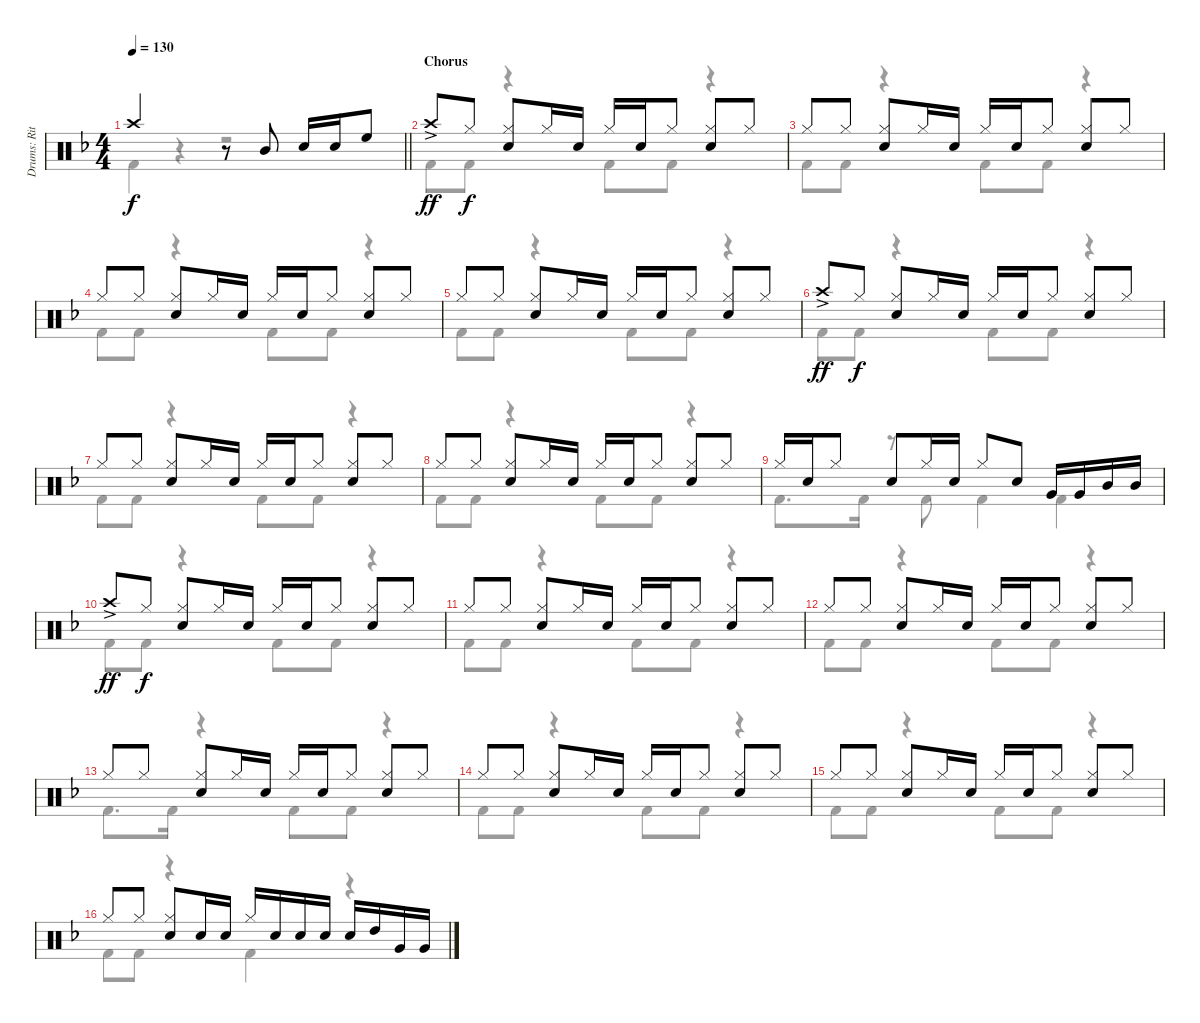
\track ("Drums: Ritsu Tianaka" "Drums: Rit") {instrument percussion}
\staff {score}
\articulation defaults
\voice
\ts (4 4)
\tempo 130
\clef neutral
\barLineRight lightlight
\ks f "Crash high (hit)".2{dy f}
r.8 "Mid Tom (hit)".8 "Snare (hit) 2".16 "Snare (hit) 2".16 "High Floor Tom (hit)".8 |
\section ("" "Chorus")
"Crash high (hit)"{ac}.8{dy ff} "Hi-Hat (closed)".8{dy f} ("Hi-Hat (closed)" "Electric Snare (hit)").8 "Hi-Hat (closed)".16 "Electric Snare (hit)".16 "Hi-Hat (closed)".16 "Electric Snare (hit)".16 "Hi-Hat (closed)".8 ("Hi-Hat (closed)" "Electric Snare (hit)").8 "Hi-Hat (closed)".8 |
"Hi-Hat (closed)".8 "Hi-Hat (closed)".8 ("Hi-Hat (closed)" "Electric Snare (hit)").8 "Hi-Hat (closed)".16 "Electric Snare (hit)".16 "Hi-Hat (closed)".16 "Electric Snare (hit)".16 "Hi-Hat (closed)".8 ("Hi-Hat (closed)" "Electric Snare (hit)").8 "Hi-Hat (closed)".8 |
"Hi-Hat (closed)".8 "Hi-Hat (closed)".8 ("Hi-Hat (closed)" "Electric Snare (hit)").8 "Hi-Hat (closed)".16 "Electric Snare (hit)".16 "Hi-Hat (closed)".16 "Electric Snare (hit)".16 "Hi-Hat (closed)".8 ("Hi-Hat (closed)" "Electric Snare (hit)").8 "Hi-Hat (closed)".8 |
"Hi-Hat (closed)".8 "Hi-Hat (closed)".8 ("Hi-Hat (closed)" "Electric Snare (hit)").8 "Hi-Hat (closed)".16 "Electric Snare (hit)".16 "Hi-Hat (closed)".16 "Electric Snare (hit)".16 "Hi-Hat (closed)".8 ("Hi-Hat (closed)" "Electric Snare (hit)").8 "Hi-Hat (closed)".8 |
"Crash high (hit)"{ac}.8{dy ff} "Hi-Hat (closed)".8{dy f} ("Hi-Hat (closed)" "Electric Snare (hit)").8 "Hi-Hat (closed)".16 "Electric Snare (hit)".16 "Hi-Hat (closed)".16 "Electric Snare (hit)".16 "Hi-Hat (closed)".8 ("Hi-Hat (closed)" "Electric Snare (hit)").8 "Hi-Hat (closed)".8 |
"Hi-Hat (closed)".8 "Hi-Hat (closed)".8 ("Hi-Hat (closed)" "Electric Snare (hit)").8 "Hi-Hat (closed)".16 "Electric Snare (hit)".16 "Hi-Hat (closed)".16 "Electric Snare (hit)".16 "Hi-Hat (closed)".8 ("Hi-Hat (closed)" "Electric Snare (hit)").8 "Hi-Hat (closed)".8 |
"Hi-Hat (closed)".8 "Hi-Hat (closed)".8 ("Hi-Hat (closed)" "Electric Snare (hit)").8 "Hi-Hat (closed)".16 "Electric Snare (hit)".16 "Hi-Hat (closed)".16 "Electric Snare (hit)".16 "Hi-Hat (closed)".8 ("Hi-Hat (closed)" "Electric Snare (hit)").8 "Hi-Hat (closed)".8 |
"Hi-Hat (closed)".16 "Electric Snare (hit)".16 "Hi-Hat (closed)".8 "Electric Snare (hit)".8 "Hi-Hat (closed)".16 "Electric Snare (hit)".16 "Hi-Hat (closed)".8 "Electric Snare (hit)".8 "Very Low Tom (hit)".16 "Very Low Tom (hit)".16 "Mid Tom (hit)".16 "Mid Tom (hit)".16 |
"Crash high (hit)"{ac}.8{dy ff} "Hi-Hat (closed)".8{dy f} ("Hi-Hat (closed)" "Electric Snare (hit)").8 "Hi-Hat (closed)".16 "Electric Snare (hit)".16 "Hi-Hat (closed)".16 "Electric Snare (hit)".16 "Hi-Hat (closed)".8 ("Hi-Hat (closed)" "Electric Snare (hit)").8 "Hi-Hat (closed)".8 |
"Hi-Hat (closed)".8 "Hi-Hat (closed)".8 ("Hi-Hat (closed)" "Electric Snare (hit)").8 "Hi-Hat (closed)".16 "Electric Snare (hit)".16 "Hi-Hat (closed)".16 "Electric Snare (hit)".16 "Hi-Hat (closed)".8 ("Hi-Hat (closed)" "Electric Snare (hit)").8 "Hi-Hat (closed)".8 |
"Hi-Hat (closed)".8 "Hi-Hat (closed)".8 ("Hi-Hat (closed)" "Electric Snare (hit)").8 "Hi-Hat (closed)".16 "Electric Snare (hit)".16 "Hi-Hat (closed)".16 "Electric Snare (hit)".16 "Hi-Hat (closed)".8 ("Hi-Hat (closed)" "Electric Snare (hit)").8 "Hi-Hat (closed)".8 |
"Hi-Hat (closed)".8 "Hi-Hat (closed)".8 ("Hi-Hat (closed)" "Electric Snare (hit)").8 "Hi-Hat (closed)".16 "Electric Snare (hit)".16 "Hi-Hat (closed)".16 "Electric Snare (hit)".16 "Hi-Hat (closed)".8 ("Hi-Hat (closed)" "Electric Snare (hit)").8 "Hi-Hat (closed)".8 |
"Hi-Hat (closed)".8 "Hi-Hat (closed)".8 ("Hi-Hat (closed)" "Electric Snare (hit)").8 "Hi-Hat (closed)".16 "Electric Snare (hit)".16 "Hi-Hat (closed)".16 "Electric Snare (hit)".16 "Hi-Hat (closed)".8 ("Hi-Hat (closed)" "Electric Snare (hit)").8 "Hi-Hat (closed)".8 |
"Hi-Hat (closed)".8 "Hi-Hat (closed)".8 ("Hi-Hat (closed)" "Electric Snare (hit)").8 "Hi-Hat (closed)".16 "Electric Snare (hit)".16 "Hi-Hat (closed)".16 "Electric Snare (hit)".16 "Hi-Hat (closed)".8 ("Hi-Hat (closed)" "Electric Snare (hit)").8 "Hi-Hat (closed)".8 |
"Hi-Hat (closed)".8 "Hi-Hat (closed)".8 ("Hi-Hat (closed)" "Electric Snare (hit)").8 "Electric Snare (hit)".16 "Electric Snare (hit)".16 "Hi-Hat (closed)".16 "Electric Snare (hit)".16 "Electric Snare (hit)".16 "Electric Snare (hit)".16 "Electric Snare (hit)".16 "High Tom (hit)".16 "Very Low Tom (hit)".16 "Very Low Tom (hit)".16
\voice
\clef neutral
\ottava regular
\simile none
\barLineRight lightlight
\ks f "Kick (hit) 2".4{dy f}
r.4 r.2 |
"Kick (hit) 2".8 "Kick (hit) 2".8 r.4 "Kick (hit) 2".8 "Kick (hit) 2".8 r.4 |
"Kick (hit) 2".8 "Kick (hit) 2".8 r.4 "Kick (hit) 2".8 "Kick (hit) 2".8 r.4 |
"Kick (hit) 2".8 "Kick (hit) 2".8 r.4 "Kick (hit) 2".8 "Kick (hit) 2".8 r.4 |
"Kick (hit) 2".8 "Kick (hit) 2".8 r.4 "Kick (hit) 2".8 "Kick (hit) 2".8 r.4 |
"Kick (hit) 2".8 "Kick (hit) 2".8 r.4 "Kick (hit) 2".8 "Kick (hit) 2".8 r.4 |
"Kick (hit) 2".8 "Kick (hit) 2".8 r.4 "Kick (hit) 2".8 "Kick (hit) 2".8 r.4 |
"Kick (hit) 2".8 "Kick (hit) 2".8 r.4 "Kick (hit) 2".8 "Kick (hit) 2".8 r.4 |
"Kick (hit) 2".8{d} "Kick (hit) 2".16 r.8 "Kick (hit) 2".8 "Kick (hit) 2".4 "Kick (hit) 2".4 |
"Kick (hit) 2".8 "Kick (hit) 2".8 r.4 "Kick (hit) 2".8 "Kick (hit) 2".8 r.4 |
"Kick (hit) 2".8 "Kick (hit) 2".8 r.4 "Kick (hit) 2".8 "Kick (hit) 2".8 r.4 |
"Kick (hit) 2".8 "Kick (hit) 2".8 r.4 "Kick (hit) 2".8 "Kick (hit) 2".8 r.4 |
"Kick (hit) 2".8{d} "Kick (hit) 2".16 r.4 "Kick (hit) 2".8 "Kick (hit) 2".8 r.4 |
"Kick (hit) 2".8 "Kick (hit) 2".8 r.4 "Kick (hit) 2".8 "Kick (hit) 2".8 r.4 |
"Kick (hit) 2".8 "Kick (hit) 2".8 r.4 "Kick (hit) 2".8 "Kick (hit) 2".8 r.4 |
"Kick (hit) 2".8 "Kick (hit) 2".8 r.4 "Kick (hit) 2".4 r.4
